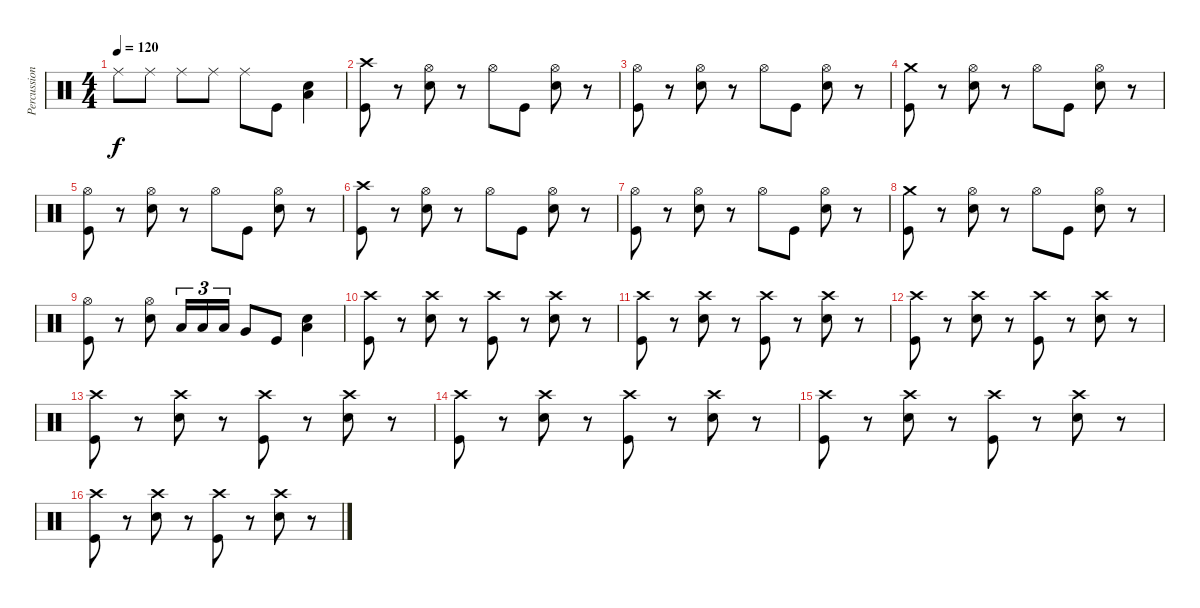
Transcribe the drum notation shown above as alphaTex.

\track ("Percussion" "Percussion") {instrument percussion}
\staff {score}
\articulation defaults
\ts (4 4)
\tempo 120
\clef neutral
\ks c "Ride (middle)".8{dy f} "Ride (middle)".8 "Ride (middle)".8 "Ride (middle)".8 "Ride (middle)".8 "Kick (hit)".8
("Low Floor Tom (hit)" "Electric Snare (hit)").4 |
("Crash high (hit)" "Kick (hit)").8 r.8 ("Electric Snare (hit)" "Hi-Hat (open)").8 r.8 "Hi-Hat (open)".8 "Kick (hit)".8 ("Electric Snare (hit)" "Hi-Hat (open)").8 r.8 |
("Hi-Hat (open)" "Kick (hit)").8 r.8 ("Electric Snare (hit)" "Hi-Hat (open)").8 r.8 "Hi-Hat (open)".8 "Kick (hit)".8 ("Electric Snare (hit)" "Hi-Hat (open)").8 r.8 |
("Crash medium (hit)" "Kick (hit)").8 r.8 ("Electric Snare (hit)" "Hi-Hat (open)").8 r.8 "Hi-Hat (open)".8 "Kick (hit)".8 ("Electric Snare (hit)" "Hi-Hat (open)").8 r.8 |
("Hi-Hat (open)" "Kick (hit)").8 r.8 ("Electric Snare (hit)" "Hi-Hat (open)").8 r.8 "Hi-Hat (open)".8 "Kick (hit)".8 ("Electric Snare (hit)" "Hi-Hat (open)").8 r.8 |
("Crash high (hit)" "Kick (hit)").8 r.8 ("Electric Snare (hit)" "Hi-Hat (open)").8 r.8 "Hi-Hat (open)".8 "Kick (hit)".8 ("Electric Snare (hit)" "Hi-Hat (open)").8 r.8 |
("Hi-Hat (open)" "Kick (hit)").8 r.8 ("Electric Snare (hit)" "Hi-Hat (open)").8 r.8 "Hi-Hat (open)".8 "Kick (hit)".8 ("Electric Snare (hit)" "Hi-Hat (open)").8 r.8 |
("Crash medium (hit)" "Kick (hit)").8 r.8 ("Electric Snare (hit)" "Hi-Hat (open)").8 r.8 "Hi-Hat (open)".8 "Kick (hit)".8 ("Electric Snare (hit)" "Hi-Hat (open)").8 r.8 |
("Hi-Hat (open)" "Kick (hit)").8 r.8 ("Electric Snare (hit)" "Hi-Hat (open)").8 "Low Tom (hit)".16{tu (3 2)} "Low Tom (hit)".16{tu (3 2)} "Low Tom (hit)".16{tu (3 2)} "Very Low Tom (hit)".8 "Kick (hit)".8 ("Electric Snare (hit)" "Low Floor Tom (hit)").4 |
("Crash high (hit)" "Kick (hit)").8 r.8 ("Electric Snare (hit)" "Crash high (hit)").8 r.8 ("Crash high (hit)" "Kick (hit)").8 r.8 ("Electric Snare (hit)" "Crash high (hit)").8 r.8 |
("Crash high (hit)" "Kick (hit)").8 r.8 ("Electric Snare (hit)" "Crash high (hit)").8 r.8 ("Crash high (hit)" "Kick (hit)").8 r.8 ("Electric Snare (hit)" "Crash high (hit)").8 r.8 |
("Crash high (hit)" "Kick (hit)").8 r.8 ("Electric Snare (hit)" "Crash high (hit)").8 r.8 ("Crash high (hit)" "Kick (hit)").8 r.8 ("Electric Snare (hit)" "Crash high (hit)").8 r.8 |
("Crash high (hit)" "Kick (hit)").8 r.8 ("Electric Snare (hit)" "Crash high (hit)").8 r.8 ("Crash high (hit)" "Kick (hit)").8 r.8 ("Electric Snare (hit)" "Crash high (hit)").8 r.8 |
("Crash high (hit)" "Kick (hit)").8 r.8 ("Electric Snare (hit)" "Crash high (hit)").8 r.8 ("Crash high (hit)" "Kick (hit)").8 r.8 ("Electric Snare (hit)" "Crash high (hit)").8 r.8 |
("Crash high (hit)" "Kick (hit)").8 r.8 ("Electric Snare (hit)" "Crash high (hit)").8 r.8 ("Crash high (hit)" "Kick (hit)").8 r.8 ("Electric Snare (hit)" "Crash high (hit)").8 r.8 |
("Crash high (hit)" "Kick (hit)").8 r.8 ("Electric Snare (hit)" "Crash high (hit)").8 r.8 ("Crash high (hit)" "Kick (hit)").8 r.8 ("Electric Snare (hit)" "Crash high (hit)").8 r.8
